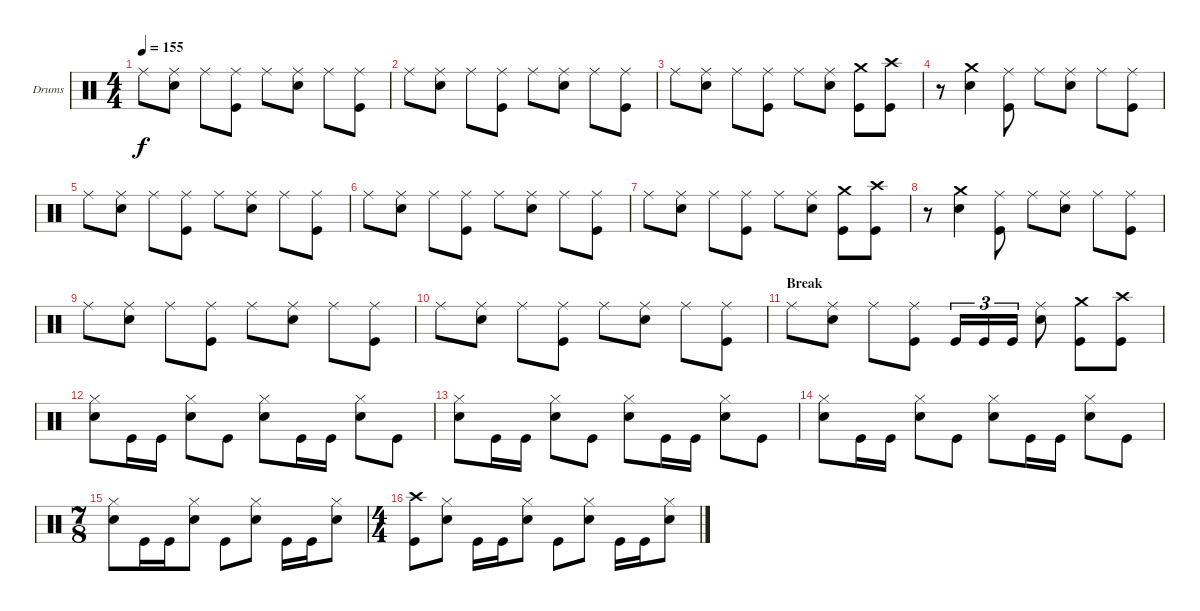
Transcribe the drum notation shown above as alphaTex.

\bracketExtendMode groupsimilarinstruments
\firstSystemTrackNameOrientation horizontal
\otherSystemsTrackNameOrientation horizontal
\track ("Drumkit" "Drums") {instrument percussion}
\staff {score}
\articulation defaults
\ts (4 4)
\tempo 155
\clef neutral
\ks c "Ride (middle)".8{dy f}
("Ride (middle)" "Snare (hit) 2").8 "Ride (middle)".8 ("Ride (middle)" "Kick (hit)").8 "Ride (middle)".8 ("Ride (middle)" "Snare (hit) 2").8 "Ride (middle)".8 ("Ride (middle)" "Kick (hit)").8 |
"Ride (middle)".8 ("Ride (middle)" "Snare (hit) 2").8 "Ride (middle)".8 ("Ride (middle)" "Kick (hit)").8 "Ride (middle)".8 ("Ride (middle)" "Snare (hit) 2").8 "Ride (middle)".8 ("Ride (middle)" "Kick (hit)").8 |
"Ride (middle)".8 ("Ride (middle)" "Snare (hit) 2").8 "Ride (middle)".8 ("Ride (middle)" "Kick (hit)").8 "Ride (middle)".8 ("Ride (middle)" "Snare (hit) 2").8 ("Crash medium (hit)" "Kick (hit)").8 ("Crash high (hit)" "Kick (hit)").8 |
r.8 ("Crash medium (hit)" "Snare (hit) 2").4 ("Ride (middle)" "Kick (hit)").8 "Ride (middle)".8 ("Ride (middle)" "Snare (hit) 2").8 "Ride (middle)".8 ("Ride (middle)" "Kick (hit)").8 |
"Ride (middle)".8 ("Ride (middle)" "Snare (hit) 2").8 "Ride (middle)".8 ("Ride (middle)" "Kick (hit)").8 "Ride (middle)".8 ("Ride (middle)" "Snare (hit) 2").8 "Ride (middle)".8 ("Ride (middle)" "Kick (hit)").8 |
"Ride (middle)".8 ("Ride (middle)" "Snare (hit) 2").8 "Ride (middle)".8 ("Ride (middle)" "Kick (hit)").8 "Ride (middle)".8 ("Ride (middle)" "Snare (hit) 2").8 "Ride (middle)".8 ("Ride (middle)" "Kick (hit)").8 |
"Ride (middle)".8 ("Ride (middle)" "Snare (hit) 2").8 "Ride (middle)".8 ("Ride (middle)" "Kick (hit)").8 "Ride (middle)".8 ("Ride (middle)" "Snare (hit) 2").8 ("Crash medium (hit)" "Kick (hit)").8 ("Crash high (hit)" "Kick (hit)").8 |
r.8 ("Crash medium (hit)" "Snare (hit) 2").4 ("Ride (middle)" "Kick (hit)").8 "Ride (middle)".8 ("Ride (middle)" "Snare (hit) 2").8 "Ride (middle)".8 ("Ride (middle)" "Kick (hit)").8 |
"Ride (middle)".8 ("Ride (middle)" "Snare (hit) 2").8 "Ride (middle)".8 ("Ride (middle)" "Kick (hit)").8 "Ride (middle)".8 ("Ride (middle)" "Snare (hit) 2").8 "Ride (middle)".8 ("Ride (middle)" "Kick (hit)").8 |
"Ride (middle)".8 ("Ride (middle)" "Snare (hit) 2").8 "Ride (middle)".8 ("Ride (middle)" "Kick (hit)").8 "Ride (middle)".8 ("Ride (middle)" "Snare (hit) 2").8 "Ride (middle)".8 ("Ride (middle)" "Kick (hit)").8 |
\section ("" "Break")
"Ride (middle)".8 ("Ride (middle)" "Snare (hit) 2").8 "Ride (middle)".8 ("Ride (middle)" "Kick (hit)").8 "Kick (hit)".16{tu (3 2)} "Kick (hit)".16{tu (3 2)} "Kick (hit)".16{tu (3 2)} ("Ride (middle)" "Snare (hit) 2").8 ("Crash medium (hit)" "Kick (hit)").8 ("Crash high (hit)" "Kick (hit)").8 |
("Hi-Hat (closed)" "Snare (hit) 2").8 "Kick (hit)".16 "Kick (hit)".16 ("Hi-Hat (closed)" "Snare (hit) 2").8 "Kick (hit)".8 ("Hi-Hat (closed)" "Snare (hit) 2").8 "Kick (hit)".16 "Kick (hit)".16 ("Hi-Hat (closed)" "Snare (hit) 2").8 "Kick (hit)".8 |
("Hi-Hat (closed)" "Snare (hit) 2").8 "Kick (hit)".16 "Kick (hit)".16 ("Hi-Hat (closed)" "Snare (hit) 2").8 "Kick (hit)".8 ("Hi-Hat (closed)" "Snare (hit) 2").8 "Kick (hit)".16 "Kick (hit)".16 ("Hi-Hat (closed)" "Snare (hit) 2").8 "Kick (hit)".8 |
("Hi-Hat (closed)" "Snare (hit) 2").8 "Kick (hit)".16 "Kick (hit)".16 ("Hi-Hat (closed)" "Snare (hit) 2").8 "Kick (hit)".8 ("Hi-Hat (closed)" "Snare (hit) 2").8 "Kick (hit)".16 "Kick (hit)".16 ("Hi-Hat (closed)" "Snare (hit) 2").8 "Kick (hit)".8 |
\ts (7 8)
\beaming (8 3 2 2)
("Hi-Hat (closed)" "Snare (hit) 2").8 "Kick (hit)".16 "Kick (hit)".16 ("Hi-Hat (closed)" "Snare (hit) 2").8 "Kick (hit)".8 ("Hi-Hat (closed)" "Snare (hit) 2").8 "Kick (hit)".16 "Kick (hit)".16 ("Hi-Hat (closed)" "Snare (hit) 2").8 |
\ts (4 4)
\beaming (8 2 2 2 2)
("Crash high (hit)" "Kick (hit)").8 ("Hi-Hat (closed)" "Snare (hit) 2").8 "Kick (hit)".16 "Kick (hit)".16 ("Hi-Hat (closed)" "Snare (hit) 2").8 "Kick (hit)".8 ("Hi-Hat (closed)" "Snare (hit) 2").8 "Kick (hit)".16 "Kick (hit)".16 ("Hi-Hat (closed)" "Snare (hit) 2").8
